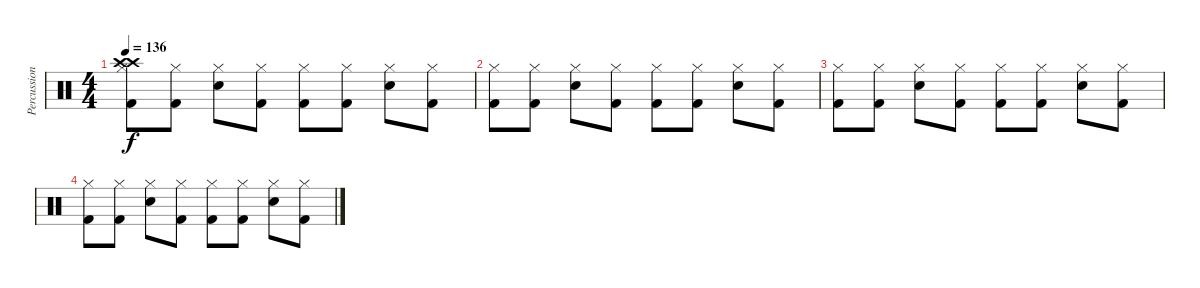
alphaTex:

\track ("Percussion" "Percussion") {instrument percussion}
\staff {score}
\articulation defaults
\ts (4 4)
\tempo 136
\clef neutral
\ks c
("Crash high (hit)" "Crash high (hit)" "Hi-Hat (closed)" "Kick (hit) 2").8{dy f} ("Hi-Hat (closed)" "Kick (hit) 2").8 ("Hi-Hat (closed)" "Electric Snare (hit)").8 ("Hi-Hat (closed)" "Kick (hit) 2").8 ("Hi-Hat (closed)" "Kick (hit) 2").8 ("Hi-Hat (closed)" "Kick (hit) 2").8 ("Hi-Hat (closed)" "Electric Snare (hit)").8 ("Hi-Hat (closed)" "Kick (hit) 2").8 |
("Hi-Hat (closed)" "Kick (hit) 2").8 ("Hi-Hat (closed)" "Kick (hit) 2").8 ("Hi-Hat (closed)" "Electric Snare (hit)").8 ("Hi-Hat (closed)" "Kick (hit) 2").8 ("Hi-Hat (closed)" "Kick (hit) 2").8 ("Hi-Hat (closed)" "Kick (hit) 2").8 ("Hi-Hat (closed)" "Electric Snare (hit)").8 ("Hi-Hat (closed)" "Kick (hit) 2").8 |
("Hi-Hat (closed)" "Kick (hit) 2").8 ("Hi-Hat (closed)" "Kick (hit) 2").8 ("Hi-Hat (closed)" "Electric Snare (hit)").8 ("Hi-Hat (closed)" "Kick (hit) 2").8 ("Hi-Hat (closed)" "Kick (hit) 2").8 ("Hi-Hat (closed)" "Kick (hit) 2").8 ("Hi-Hat (closed)" "Electric Snare (hit)").8 ("Hi-Hat (closed)" "Kick (hit) 2").8 |
("Hi-Hat (closed)" "Kick (hit) 2").8 ("Hi-Hat (closed)" "Kick (hit) 2").8 ("Hi-Hat (closed)" "Electric Snare (hit)").8 ("Hi-Hat (closed)" "Kick (hit) 2").8 ("Hi-Hat (closed)" "Kick (hit) 2").8 ("Hi-Hat (closed)" "Kick (hit) 2").8 ("Hi-Hat (closed)" "Electric Snare (hit)").8 ("Hi-Hat (closed)" "Kick (hit) 2").8
